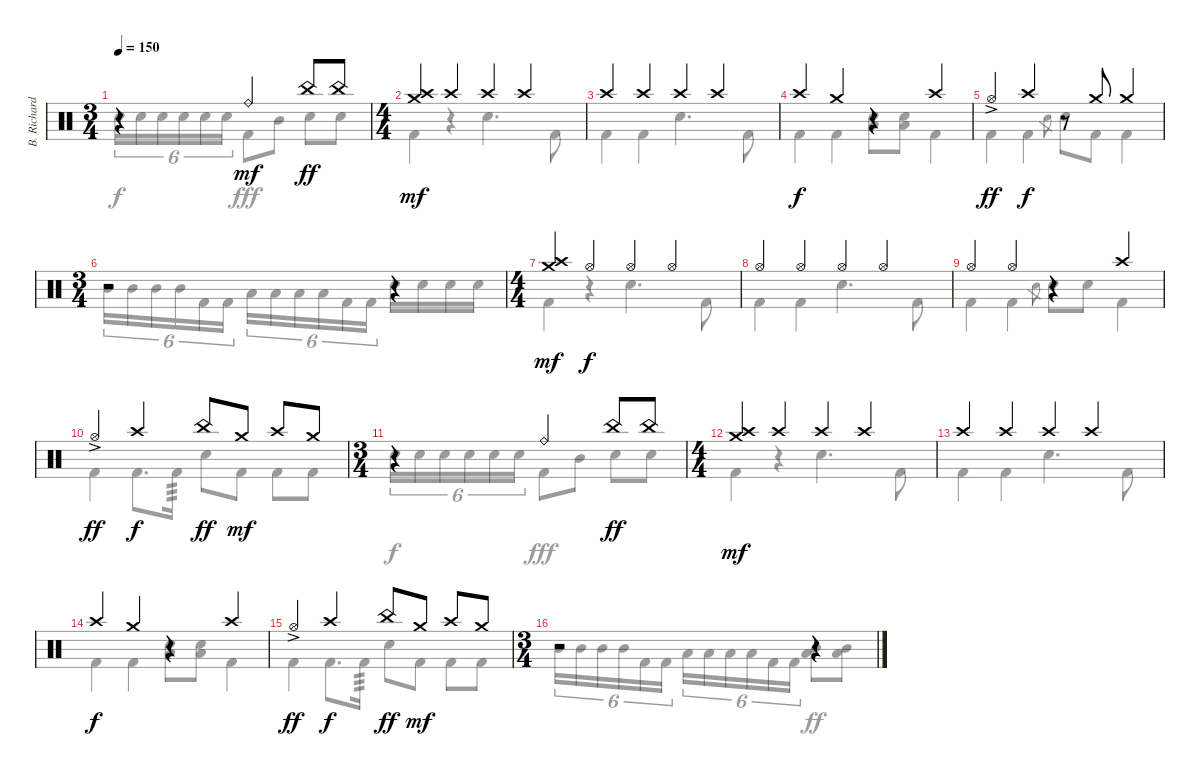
\track ("B. Richardson Drums" "B. Richard") {instrument percussion}
\staff {score}
\articulation defaults
\voice
\ts (3 4)
\tempo 150
\clef neutral
\ks c
r.4{dy f} "Ride (bell)".4{dy mf} "China (hit)".8{dy ff} "China (hit)".8 |
\ts (4 4)
("Crash high (hit)" "Crash medium (hit)").4{dy mf} "Crash high (hit)".4 "Crash high (hit)".4 "Crash high (hit)".4 |
"Crash high (hit)".4 "Crash high (hit)".4 "Crash high (hit)".4 "Crash high (hit)".4 |
"Crash high (hit)".4{dy f} "Crash medium (hit)".4 r.4 "Crash high (hit)".4 |
"Hi-Hat (open)"{ac}.4{dy ff} "Crash high (hit)".4{dy f} r.8 "Crash medium (hit)".8 "Crash medium (hit)".4 |
\ts (3 4)
r.2 r.4 |
\ts (4 4)
("Crash high (hit)" "Crash medium (hit)").4{dy mf} "Hi-Hat (open)".4{dy f} "Hi-Hat (open)".4 "Hi-Hat (open)".4 |
"Hi-Hat (open)".4 "Hi-Hat (open)".4 "Hi-Hat (open)".4 "Hi-Hat (open)".4 |
"Hi-Hat (open)".4 "Hi-Hat (open)".4 r.4 "Crash high (hit)".4 |
"Hi-Hat (open)"{ac}.4{dy ff} "Crash high (hit)".4{dy f} "China (hit)".8{dy ff} "Crash medium (hit)".8{dy mf} "Crash high (hit)".8 "Crash medium (hit)".8 |
\ts (3 4)
r.4 "Ride (bell)".4 "China (hit)".8{dy ff} "China (hit)".8 |
\ts (4 4)
("Crash high (hit)" "Crash medium (hit)").4{dy mf} "Crash high (hit)".4 "Crash high (hit)".4 "Crash high (hit)".4 |
"Crash high (hit)".4 "Crash high (hit)".4 "Crash high (hit)".4 "Crash high (hit)".4 |
"Crash high (hit)".4{dy f} "Crash medium (hit)".4 r.4 "Crash high (hit)".4 |
"Hi-Hat (open)"{ac}.4{dy ff} "Crash high (hit)".4{dy f} "China (hit)".8{dy ff} "Crash medium (hit)".8{dy mf} "Crash high (hit)".8 "Crash medium (hit)".8 |
\ts (3 4)
r.2 r.4
\voice
\clef neutral
\ottava regular
\simile none
\ks c "Electric Snare (hit)".16{tu (6 4) dy f} "Electric Snare (hit)".16{tu (6 4)} "Electric Snare (hit)".16{tu (6 4)} "Electric Snare (hit)".16{tu (6 4)} "Electric Snare (hit)".16{tu (6 4)} "Electric Snare (hit)".16{tu (6 4)} "Kick (hit) 2".8{dy fff} "Mid Tom (hit)".8 "Electric Snare (hit)".8 "Electric Snare (hit)".8
|
"Kick (hit) 2".4 r.4 "Electric Snare (hit)".4{d} "Kick (hit) 2".8 |
"Kick (hit) 2".4 "Kick (hit) 2".4 "Electric Snare (hit)".4{d} "Kick (hit) 2".8 |
"Kick (hit) 2".4 "Kick (hit) 2".4 ("Electric Snare (hit)" "Low Tom (hit)").8 ("Electric Snare (hit)" "Low Tom (hit)").8 "Kick (hit) 2".4 |
"Kick (hit) 2".4 "Kick (hit) 2".4 "Electric Snare (hit)".8{gr} "Electric Snare (hit)".8 "Kick (hit) 2".8 "Kick (hit) 2".4 |
"Mid Tom (hit)".16{tu (6 4)} "Mid Tom (hit)".16{tu (6 4)} "Mid Tom (hit)".16{tu (6 4)} "Mid Tom (hit)".16{tu (6 4)} "Kick (hit) 2".16{tu (6 4)} "Kick (hit) 2".16{tu (6 4)} "Low Tom (hit)".16{tu (6 4)} "Low Tom (hit)".16{tu (6 4)} "Low Tom (hit)".16{tu (6 4)} "Low Tom (hit)".16{tu (6 4)} "Kick (hit) 2".16{tu (6 4)} "Kick (hit) 2".16{tu (6 4)} "Electric Snare (hit)".16 "Electric Snare (hit)".16 "Electric Snare (hit)".16 "Electric Snare (hit)".16 |
"Kick (hit) 2".4 r.4 "Electric Snare (hit)".4{d} "Kick (hit) 2".8 |
"Kick (hit) 2".4 "Kick (hit) 2".4 "Electric Snare (hit)".4{d} "Kick (hit) 2".8 |
"Kick (hit) 2".4 "Kick (hit) 2".4 "Electric Snare (hit)".8{gr} "Electric Snare (hit)".8 "Electric Snare (hit)".8 "Kick (hit) 2".4 |
"Kick (hit) 2".4 "Kick (hit) 2".8{d} "Kick (hit) 2".16{tp 3} "Electric Snare (hit)".8 "Kick (hit) 2".8 "Kick (hit) 2".8 "Kick (hit) 2".8 |
"Electric Snare (hit)".16{tu (6 4) dy f} "Electric Snare (hit)".16{tu (6 4)} "Electric Snare (hit)".16{tu (6 4)} "Electric Snare (hit)".16{tu (6 4)} "Electric Snare (hit)".16{tu (6 4)} "Electric Snare (hit)".16{tu (6 4)} "Kick (hit) 2".8{dy fff} "Mid Tom (hit)".8 "Electric Snare (hit)".8 "Electric Snare (hit)".8 |
"Kick (hit) 2".4 r.4 "Electric Snare (hit)".4{d} "Kick (hit) 2".8 |
"Kick (hit) 2".4 "Kick (hit) 2".4 "Electric Snare (hit)".4{d} "Kick (hit) 2".8 |
"Kick (hit) 2".4 "Kick (hit) 2".4 ("Electric Snare (hit)" "Low Tom (hit)").8 ("Electric Snare (hit)" "Low Tom (hit)").8 "Kick (hit) 2".4 |
"Kick (hit) 2".4 "Kick (hit) 2".8{d} "Kick (hit) 2".16{tp 3} "Electric Snare (hit)".8 "Kick (hit) 2".8 "Kick (hit) 2".8 "Kick (hit) 2".8 |
"Mid Tom (hit)".16{tu (6 4)} "Mid Tom (hit)".16{tu (6 4)} "Mid Tom (hit)".16{tu (6 4)} "Mid Tom (hit)".16{tu (6 4)} "Kick (hit) 2".16{tu (6 4)} "Kick (hit) 2".16{tu (6 4)} "Low Tom (hit)".16{tu (6 4)} "Low Tom (hit)".16{tu (6 4)} "Low Tom (hit)".16{tu (6 4)} "Low Tom (hit)".16{tu (6 4)} "Kick (hit) 2".16{tu (6 4)} "Kick (hit) 2".16{tu (6 4)} ("Mid Tom (hit)" "Low Tom (hit)").8{dy ff} ("Mid Tom (hit)" "Low Tom (hit)").8
